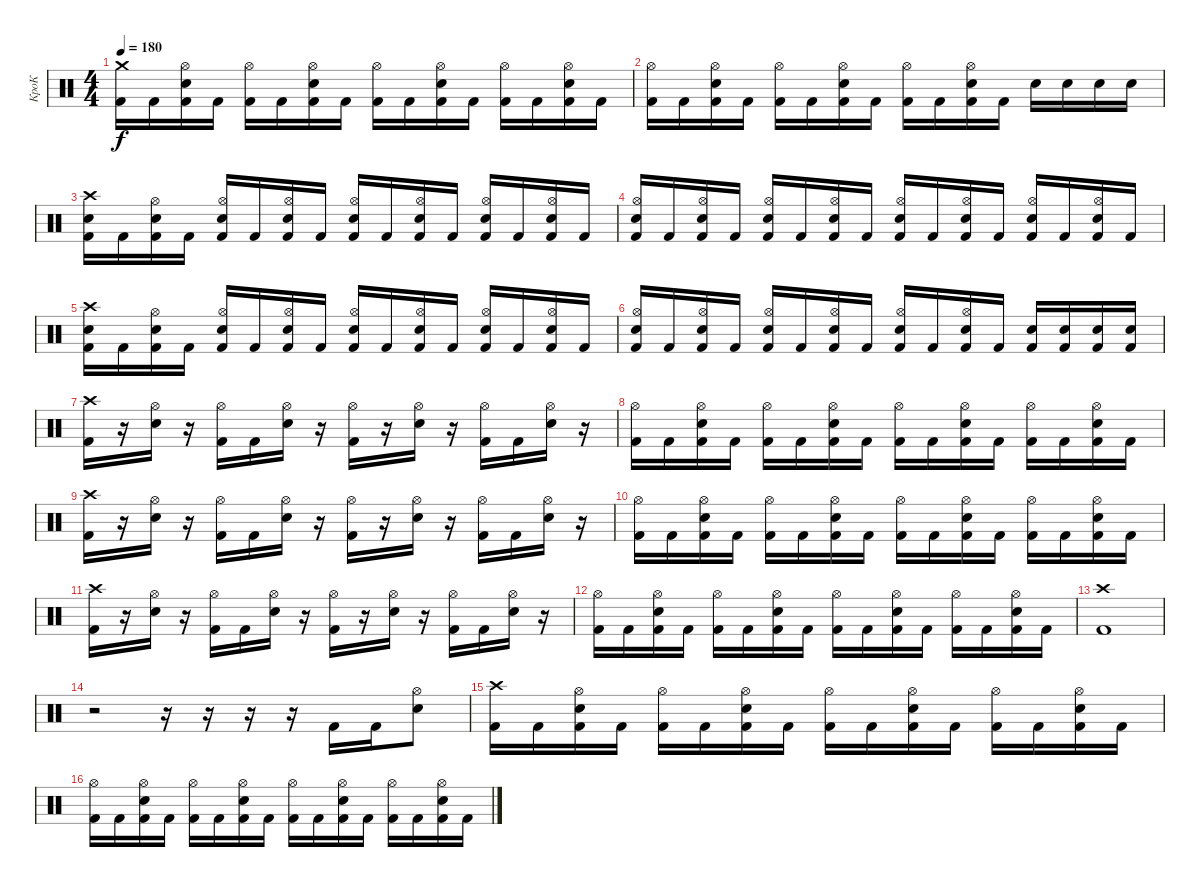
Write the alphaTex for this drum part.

\track ("КроК" "КроК") {instrument percussion}
\staff {score}
\articulation defaults
\ts (4 4)
\tempo 180
\clef neutral
\ks c
("Crash medium (hit)" "Kick (hit) 2").16{dy f} "Kick (hit) 2".16 ("Hi-Hat (open)" "Electric Snare (hit)" "Kick (hit) 2").16 "Kick (hit) 2".16 ("Hi-Hat (open)" "Kick (hit) 2").16 "Kick (hit) 2".16 ("Hi-Hat (open)" "Electric Snare (hit)" "Kick (hit) 2").16 "Kick (hit) 2".16 ("Hi-Hat (open)" "Kick (hit) 2").16 "Kick (hit) 2".16 ("Hi-Hat (open)" "Electric Snare (hit)" "Kick (hit) 2").16 "Kick (hit) 2".16 ("Hi-Hat (open)" "Kick (hit) 2").16 "Kick (hit) 2".16 ("Hi-Hat (open)" "Electric Snare (hit)" "Kick (hit) 2").16 "Kick (hit) 2".16 |
("Hi-Hat (open)" "Kick (hit) 2").16 "Kick (hit) 2".16 ("Hi-Hat (open)" "Electric Snare (hit)" "Kick (hit) 2").16 "Kick (hit) 2".16 ("Hi-Hat (open)" "Kick (hit) 2").16 "Kick (hit) 2".16 ("Hi-Hat (open)" "Electric Snare (hit)" "Kick (hit) 2").16 "Kick (hit) 2".16 ("Hi-Hat (open)" "Kick (hit) 2").16 "Kick (hit) 2".16 ("Hi-Hat (open)" "Electric Snare (hit)" "Kick (hit) 2").16 "Kick (hit) 2".16 "Electric Snare (hit)".16 "Electric Snare (hit)".16 "Electric Snare (hit)".16 "Electric Snare (hit)".16 |
("Crash high (hit)" "Electric Snare (hit)" "Kick (hit) 2").16 "Kick (hit) 2".16 ("Hi-Hat (open)" "Electric Snare (hit)" "Kick (hit) 2").16 "Kick (hit) 2".16 ("Hi-Hat (open)" "Electric Snare (hit)" "Kick (hit) 2").16 "Kick (hit) 2".16 ("Hi-Hat (open)" "Electric Snare (hit)" "Kick (hit) 2").16 "Kick (hit) 2".16 ("Hi-Hat (open)" "Electric Snare (hit)" "Kick (hit) 2").16 "Kick (hit) 2".16 ("Hi-Hat (open)" "Electric Snare (hit)" "Kick (hit) 2").16 "Kick (hit) 2".16 ("Hi-Hat (open)" "Electric Snare (hit)" "Kick (hit) 2").16 "Kick (hit) 2".16 ("Hi-Hat (open)" "Electric Snare (hit)" "Kick (hit) 2").16 "Kick (hit) 2".16 |
("Hi-Hat (open)" "Electric Snare (hit)" "Kick (hit) 2").16 "Kick (hit) 2".16 ("Hi-Hat (open)" "Electric Snare (hit)" "Kick (hit) 2").16 "Kick (hit) 2".16 ("Hi-Hat (open)" "Electric Snare (hit)" "Kick (hit) 2").16 "Kick (hit) 2".16 ("Hi-Hat (open)" "Electric Snare (hit)" "Kick (hit) 2").16 "Kick (hit) 2".16 ("Hi-Hat (open)" "Electric Snare (hit)" "Kick (hit) 2").16 "Kick (hit) 2".16 ("Hi-Hat (open)" "Electric Snare (hit)" "Kick (hit) 2").16 "Kick (hit) 2".16 ("Hi-Hat (open)" "Electric Snare (hit)" "Kick (hit) 2").16 "Kick (hit) 2".16 ("Hi-Hat (open)" "Electric Snare (hit)" "Kick (hit) 2").16 "Kick (hit) 2".16 |
("Crash high (hit)" "Electric Snare (hit)" "Kick (hit) 2").16 "Kick (hit) 2".16 ("Hi-Hat (open)" "Electric Snare (hit)" "Kick (hit) 2").16 "Kick (hit) 2".16 ("Hi-Hat (open)" "Electric Snare (hit)" "Kick (hit) 2").16 "Kick (hit) 2".16 ("Hi-Hat (open)" "Electric Snare (hit)" "Kick (hit) 2").16 "Kick (hit) 2".16 ("Hi-Hat (open)" "Electric Snare (hit)" "Kick (hit) 2").16 "Kick (hit) 2".16 ("Hi-Hat (open)" "Electric Snare (hit)" "Kick (hit) 2").16 "Kick (hit) 2".16 ("Hi-Hat (open)" "Electric Snare (hit)" "Kick (hit) 2").16 "Kick (hit) 2".16 ("Hi-Hat (open)" "Electric Snare (hit)" "Kick (hit) 2").16 "Kick (hit) 2".16 |
("Hi-Hat (open)" "Electric Snare (hit)" "Kick (hit) 2").16 "Kick (hit) 2".16 ("Hi-Hat (open)" "Electric Snare (hit)" "Kick (hit) 2").16 "Kick (hit) 2".16 ("Hi-Hat (open)" "Electric Snare (hit)" "Kick (hit) 2").16 "Kick (hit) 2".16 ("Hi-Hat (open)" "Electric Snare (hit)" "Kick (hit) 2").16 "Kick (hit) 2".16 ("Hi-Hat (open)" "Electric Snare (hit)" "Kick (hit) 2").16 "Kick (hit) 2".16 ("Hi-Hat (open)" "Electric Snare (hit)" "Kick (hit) 2").16 "Kick (hit) 2".16 ("Electric Snare (hit)" "Kick (hit) 2").16 ("Electric Snare (hit)" "Kick (hit) 2").16 ("Electric Snare (hit)" "Kick (hit) 2").16 ("Electric Snare (hit)" "Kick (hit) 2").16 |
("Crash high (hit)" "Kick (hit) 2").16 r.16 ("Hi-Hat (open)" "Electric Snare (hit)").16 r.16 ("Hi-Hat (open)" "Kick (hit) 2").16 "Kick (hit) 2".16 ("Hi-Hat (open)" "Electric Snare (hit)").16 r.16 ("Hi-Hat (open)" "Kick (hit) 2").16 r.16 ("Hi-Hat (open)" "Electric Snare (hit)").16 r.16 ("Hi-Hat (open)" "Kick (hit) 2").16 "Kick (hit) 2".16 ("Hi-Hat (open)" "Electric Snare (hit)").16 r.16 |
("Hi-Hat (open)" "Kick (hit) 2").16 "Kick (hit) 2".16 ("Hi-Hat (open)" "Electric Snare (hit)" "Kick (hit) 2").16 "Kick (hit) 2".16 ("Hi-Hat (open)" "Kick (hit) 2").16 "Kick (hit) 2".16 ("Hi-Hat (open)" "Electric Snare (hit)" "Kick (hit) 2").16 "Kick (hit) 2".16 ("Hi-Hat (open)" "Kick (hit) 2").16 "Kick (hit) 2".16 ("Hi-Hat (open)" "Electric Snare (hit)" "Kick (hit) 2").16 "Kick (hit) 2".16 ("Hi-Hat (open)" "Kick (hit) 2").16 "Kick (hit) 2".16 ("Hi-Hat (open)" "Electric Snare (hit)" "Kick (hit) 2").16 "Kick (hit) 2".16 |
("Crash high (hit)" "Kick (hit) 2").16 r.16 ("Hi-Hat (open)" "Electric Snare (hit)").16 r.16 ("Hi-Hat (open)" "Kick (hit) 2").16 "Kick (hit) 2".16 ("Hi-Hat (open)" "Electric Snare (hit)").16 r.16 ("Hi-Hat (open)" "Kick (hit) 2").16 r.16 ("Hi-Hat (open)" "Electric Snare (hit)").16 r.16 ("Hi-Hat (open)" "Kick (hit) 2").16 "Kick (hit) 2".16 ("Hi-Hat (open)" "Electric Snare (hit)").16 r.16 |
("Hi-Hat (open)" "Kick (hit) 2").16 "Kick (hit) 2".16 ("Hi-Hat (open)" "Electric Snare (hit)" "Kick (hit) 2").16 "Kick (hit) 2".16 ("Hi-Hat (open)" "Kick (hit) 2").16 "Kick (hit) 2".16 ("Hi-Hat (open)" "Electric Snare (hit)" "Kick (hit) 2").16 "Kick (hit) 2".16 ("Hi-Hat (open)" "Kick (hit) 2").16 "Kick (hit) 2".16 ("Hi-Hat (open)" "Electric Snare (hit)" "Kick (hit) 2").16 "Kick (hit) 2".16 ("Hi-Hat (open)" "Kick (hit) 2").16 "Kick (hit) 2".16 ("Hi-Hat (open)" "Electric Snare (hit)" "Kick (hit) 2").16 "Kick (hit) 2".16 |
("Crash high (hit)" "Kick (hit) 2").16 r.16 ("Hi-Hat (open)" "Electric Snare (hit)").16 r.16 ("Hi-Hat (open)" "Kick (hit) 2").16 "Kick (hit) 2".16 ("Hi-Hat (open)" "Electric Snare (hit)").16 r.16 ("Hi-Hat (open)" "Kick (hit) 2").16 r.16 ("Hi-Hat (open)" "Electric Snare (hit)").16 r.16 ("Hi-Hat (open)" "Kick (hit) 2").16 "Kick (hit) 2".16 ("Hi-Hat (open)" "Electric Snare (hit)").16 r.16 |
("Hi-Hat (open)" "Kick (hit) 2").16 "Kick (hit) 2".16 ("Hi-Hat (open)" "Electric Snare (hit)" "Kick (hit) 2").16 "Kick (hit) 2".16 ("Hi-Hat (open)" "Kick (hit) 2").16 "Kick (hit) 2".16 ("Hi-Hat (open)" "Electric Snare (hit)" "Kick (hit) 2").16 "Kick (hit) 2".16 ("Hi-Hat (open)" "Kick (hit) 2").16 "Kick (hit) 2".16 ("Hi-Hat (open)" "Electric Snare (hit)" "Kick (hit) 2").16 "Kick (hit) 2".16 ("Hi-Hat (open)" "Kick (hit) 2").16 "Kick (hit) 2".16 ("Hi-Hat (open)" "Electric Snare (hit)" "Kick (hit) 2").16 "Kick (hit) 2".16 |
("Crash high (hit)" "Kick (hit) 2").1 |
r.2 r.16 r.16 r.16 r.16 "Kick (hit) 2".16 "Kick (hit) 2".16 ("Hi-Hat (open)" "Electric Snare (hit)").8 |
("Crash high (hit)" "Kick (hit) 2").16 "Kick (hit) 2".16 ("Hi-Hat (open)" "Electric Snare (hit)" "Kick (hit) 2").16 "Kick (hit) 2".16 ("Hi-Hat (open)" "Kick (hit) 2").16 "Kick (hit) 2".16 ("Hi-Hat (open)" "Electric Snare (hit)" "Kick (hit) 2").16 "Kick (hit) 2".16 ("Hi-Hat (open)" "Kick (hit) 2").16 "Kick (hit) 2".16 ("Hi-Hat (open)" "Electric Snare (hit)" "Kick (hit) 2").16 "Kick (hit) 2".16 ("Hi-Hat (open)" "Kick (hit) 2").16 "Kick (hit) 2".16 ("Hi-Hat (open)" "Electric Snare (hit)" "Kick (hit) 2").16 "Kick (hit) 2".16 |
("Hi-Hat (open)" "Kick (hit) 2").16 "Kick (hit) 2".16 ("Hi-Hat (open)" "Electric Snare (hit)" "Kick (hit) 2").16 "Kick (hit) 2".16 ("Hi-Hat (open)" "Kick (hit) 2").16 "Kick (hit) 2".16 ("Hi-Hat (open)" "Electric Snare (hit)" "Kick (hit) 2").16 "Kick (hit) 2".16 ("Hi-Hat (open)" "Kick (hit) 2").16 "Kick (hit) 2".16 ("Hi-Hat (open)" "Electric Snare (hit)" "Kick (hit) 2").16 "Kick (hit) 2".16 ("Hi-Hat (open)" "Kick (hit) 2").16 "Kick (hit) 2".16 ("Hi-Hat (open)" "Electric Snare (hit)" "Kick (hit) 2").16 "Kick (hit) 2".16
